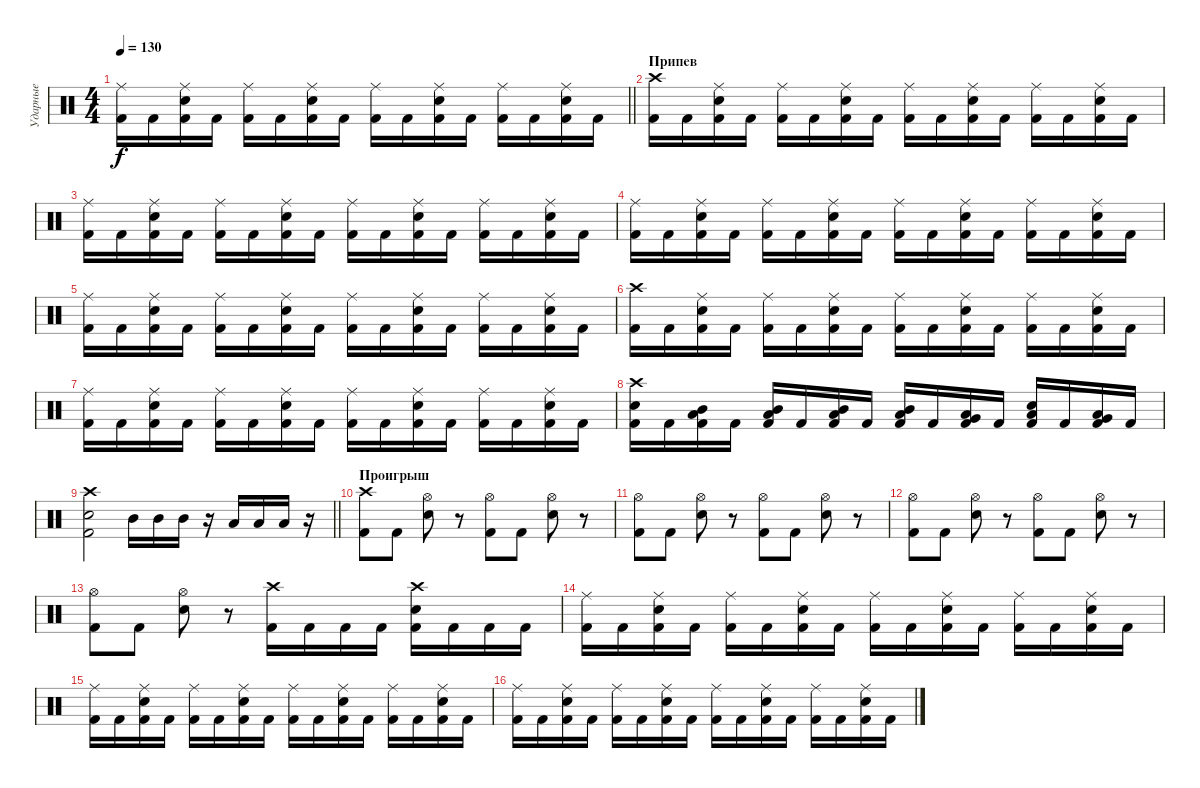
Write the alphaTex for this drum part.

\track ("Ударные" "Ударные") {instrument percussion}
\staff {score}
\articulation defaults
\ts (4 4)
\tempo 130
\clef neutral
\barLineRight lightlight
\ks c
("Ride (middle)" "Kick (hit) 2").16{dy f} "Kick (hit) 2".16 ("Ride (middle)" "Snare (hit) 2" "Kick (hit) 2").16 "Kick (hit) 2".16 ("Ride (middle)" "Kick (hit) 2").16 "Kick (hit) 2".16 ("Ride (middle)" "Snare (hit) 2" "Kick (hit) 2").16 "Kick (hit) 2".16 ("Ride (middle)" "Kick (hit) 2").16 "Kick (hit) 2".16 ("Ride (middle)" "Snare (hit) 2" "Kick (hit) 2").16 "Kick (hit) 2".16 ("Ride (middle)" "Kick (hit) 2").16 "Kick (hit) 2".16 ("Ride (middle)" "Snare (hit) 2" "Kick (hit) 2").16 "Kick (hit) 2".16 |
\section ("" "Припев")
("Crash high (hit)" "Kick (hit) 2").16 "Kick (hit) 2".16 ("Ride (middle)" "Snare (hit) 2" "Kick (hit) 2").16 "Kick (hit) 2".16 ("Ride (middle)" "Kick (hit) 2").16 "Kick (hit) 2".16 ("Ride (middle)" "Snare (hit) 2" "Kick (hit) 2").16 "Kick (hit) 2".16 ("Ride (middle)" "Kick (hit) 2").16 "Kick (hit) 2".16 ("Ride (middle)" "Snare (hit) 2" "Kick (hit) 2").16 "Kick (hit) 2".16 ("Ride (middle)" "Kick (hit) 2").16 "Kick (hit) 2".16 ("Ride (middle)" "Snare (hit) 2" "Kick (hit) 2").16 "Kick (hit) 2".16 |
("Ride (middle)" "Kick (hit) 2").16 "Kick (hit) 2".16 ("Ride (middle)" "Snare (hit) 2" "Kick (hit) 2").16 "Kick (hit) 2".16 ("Ride (middle)" "Kick (hit) 2").16 "Kick (hit) 2".16 ("Ride (middle)" "Snare (hit) 2" "Kick (hit) 2").16 "Kick (hit) 2".16 ("Ride (middle)" "Kick (hit) 2").16 "Kick (hit) 2".16 ("Ride (middle)" "Snare (hit) 2" "Kick (hit) 2").16 "Kick (hit) 2".16 ("Ride (middle)" "Kick (hit) 2").16 "Kick (hit) 2".16 ("Ride (middle)" "Snare (hit) 2" "Kick (hit) 2").16 "Kick (hit) 2".16 |
("Ride (middle)" "Kick (hit) 2").16 "Kick (hit) 2".16 ("Ride (middle)" "Snare (hit) 2" "Kick (hit) 2").16 "Kick (hit) 2".16 ("Ride (middle)" "Kick (hit) 2").16 "Kick (hit) 2".16 ("Ride (middle)" "Snare (hit) 2" "Kick (hit) 2").16 "Kick (hit) 2".16 ("Ride (middle)" "Kick (hit) 2").16 "Kick (hit) 2".16 ("Ride (middle)" "Snare (hit) 2" "Kick (hit) 2").16 "Kick (hit) 2".16 ("Ride (middle)" "Kick (hit) 2").16 "Kick (hit) 2".16 ("Ride (middle)" "Snare (hit) 2" "Kick (hit) 2").16 "Kick (hit) 2".16 |
("Ride (middle)" "Kick (hit) 2").16 "Kick (hit) 2".16 ("Ride (middle)" "Snare (hit) 2" "Kick (hit) 2").16 "Kick (hit) 2".16 ("Ride (middle)" "Kick (hit) 2").16 "Kick (hit) 2".16 ("Ride (middle)" "Snare (hit) 2" "Kick (hit) 2").16 "Kick (hit) 2".16 ("Ride (middle)" "Kick (hit) 2").16 "Kick (hit) 2".16 ("Ride (middle)" "Snare (hit) 2" "Kick (hit) 2").16 "Kick (hit) 2".16 ("Ride (middle)" "Kick (hit) 2").16 "Kick (hit) 2".16 ("Ride (middle)" "Snare (hit) 2" "Kick (hit) 2").16 "Kick (hit) 2".16 |
("Crash high (hit)" "Kick (hit) 2").16 "Kick (hit) 2".16 ("Ride (middle)" "Snare (hit) 2" "Kick (hit) 2").16 "Kick (hit) 2".16 ("Ride (middle)" "Kick (hit) 2").16 "Kick (hit) 2".16 ("Ride (middle)" "Snare (hit) 2" "Kick (hit) 2").16 "Kick (hit) 2".16 ("Ride (middle)" "Kick (hit) 2").16 "Kick (hit) 2".16 ("Ride (middle)" "Snare (hit) 2" "Kick (hit) 2").16 "Kick (hit) 2".16 ("Ride (middle)" "Kick (hit) 2").16 "Kick (hit) 2".16 ("Ride (middle)" "Snare (hit) 2" "Kick (hit) 2").16 "Kick (hit) 2".16 |
("Ride (middle)" "Kick (hit) 2").16 "Kick (hit) 2".16 ("Ride (middle)" "Snare (hit) 2" "Kick (hit) 2").16 "Kick (hit) 2".16 ("Ride (middle)" "Kick (hit) 2").16 "Kick (hit) 2".16 ("Ride (middle)" "Snare (hit) 2" "Kick (hit) 2").16 "Kick (hit) 2".16 ("Ride (middle)" "Kick (hit) 2").16 "Kick (hit) 2".16 ("Ride (middle)" "Snare (hit) 2" "Kick (hit) 2").16 "Kick (hit) 2".16 ("Ride (middle)" "Kick (hit) 2").16 "Kick (hit) 2".16 ("Ride (middle)" "Snare (hit) 2" "Kick (hit) 2").16 "Kick (hit) 2".16 |
("Crash high (hit)" "Snare (hit) 2" "Kick (hit) 2").16 "Kick (hit) 2".16 ("Mid Tom (hit)" "Low Tom (hit)" "Kick (hit) 2").16 "Kick (hit) 2".16 ("Mid Tom (hit)" "Low Tom (hit)" "Kick (hit) 2").16 "Kick (hit) 2".16 ("Mid Tom (hit)" "Low Tom (hit)" "Kick (hit) 2").16 "Kick (hit) 2".16 ("Mid Tom (hit)" "Low Tom (hit)" "Kick (hit) 2").16 "Kick (hit) 2".16 ("Low Tom (hit)" "Very Low Tom (hit)" "Kick (hit) 2").16 "Kick (hit) 2".16 ("Low Tom (hit)" "Snare (hit) 2" "Kick (hit) 2").16 "Kick (hit) 2".16 ("Low Tom (hit)" "Very Low Tom (hit)" "Kick (hit) 2").16 "Kick (hit) 2".16 |
\barLineRight lightlight
("Crash high (hit)" "Snare (hit) 2" "Kick (hit) 2").2 "Mid Tom (hit)".16 "Mid Tom (hit)".16 "Mid Tom (hit)".16 r.16 "Low Tom (hit)".16 "Low Tom (hit)".16 "Low Tom (hit)".16 r.16 |
\section ("" "Проигрыш")
("Crash high (hit)" "Kick (hit) 2").8 "Kick (hit) 2".8 ("Hi-Hat (open)" "Snare (hit) 2").8 r.8 ("Hi-Hat (open)" "Kick (hit) 2").8 "Kick (hit) 2".8 ("Hi-Hat (open)" "Snare (hit) 2").8 r.8 |
("Hi-Hat (open)" "Kick (hit) 2").8 "Kick (hit) 2".8 ("Hi-Hat (open)" "Snare (hit) 2").8 r.8 ("Hi-Hat (open)" "Kick (hit) 2").8 "Kick (hit) 2".8 ("Hi-Hat (open)" "Snare (hit) 2").8 r.8 |
("Hi-Hat (open)" "Kick (hit) 2").8 "Kick (hit) 2".8 ("Hi-Hat (open)" "Snare (hit) 2").8 r.8 ("Hi-Hat (open)" "Kick (hit) 2").8 "Kick (hit) 2".8 ("Hi-Hat (open)" "Snare (hit) 2").8 r.8 |
("Hi-Hat (open)" "Kick (hit) 2").8 "Kick (hit) 2".8 ("Hi-Hat (open)" "Snare (hit) 2").8 r.8 ("Crash high (hit)" "Kick (hit) 2").16 "Kick (hit) 2".16 "Kick (hit) 2".16 "Kick (hit) 2".16 ("Crash high (hit)" "Snare (hit) 2" "Kick (hit) 2").16 "Kick (hit) 2".16 "Kick (hit) 2".16 "Kick (hit) 2".16 |
("Ride (middle)" "Kick (hit) 2").16 "Kick (hit) 2".16 ("Ride (middle)" "Snare (hit) 2" "Kick (hit) 2").16 "Kick (hit) 2".16 ("Ride (middle)" "Kick (hit) 2").16 "Kick (hit) 2".16 ("Ride (middle)" "Snare (hit) 2" "Kick (hit) 2").16 "Kick (hit) 2".16 ("Ride (middle)" "Kick (hit) 2").16 "Kick (hit) 2".16 ("Ride (middle)" "Snare (hit) 2" "Kick (hit) 2").16 "Kick (hit) 2".16 ("Ride (middle)" "Kick (hit) 2").16 "Kick (hit) 2".16 ("Ride (middle)" "Snare (hit) 2" "Kick (hit) 2").16 "Kick (hit) 2".16 |
("Ride (middle)" "Kick (hit) 2").16 "Kick (hit) 2".16 ("Ride (middle)" "Snare (hit) 2" "Kick (hit) 2").16 "Kick (hit) 2".16 ("Ride (middle)" "Kick (hit) 2").16 "Kick (hit) 2".16 ("Ride (middle)" "Snare (hit) 2" "Kick (hit) 2").16 "Kick (hit) 2".16 ("Ride (middle)" "Kick (hit) 2").16 "Kick (hit) 2".16 ("Ride (middle)" "Snare (hit) 2" "Kick (hit) 2").16 "Kick (hit) 2".16 ("Ride (middle)" "Kick (hit) 2").16 "Kick (hit) 2".16 ("Ride (middle)" "Snare (hit) 2" "Kick (hit) 2").16 "Kick (hit) 2".16 |
("Ride (middle)" "Kick (hit) 2").16 "Kick (hit) 2".16 ("Ride (middle)" "Snare (hit) 2" "Kick (hit) 2").16 "Kick (hit) 2".16 ("Ride (middle)" "Kick (hit) 2").16 "Kick (hit) 2".16 ("Ride (middle)" "Snare (hit) 2" "Kick (hit) 2").16 "Kick (hit) 2".16 ("Ride (middle)" "Kick (hit) 2").16 "Kick (hit) 2".16 ("Ride (middle)" "Snare (hit) 2" "Kick (hit) 2").16 "Kick (hit) 2".16 ("Ride (middle)" "Kick (hit) 2").16 "Kick (hit) 2".16 ("Ride (middle)" "Snare (hit) 2" "Kick (hit) 2").16 "Kick (hit) 2".16
